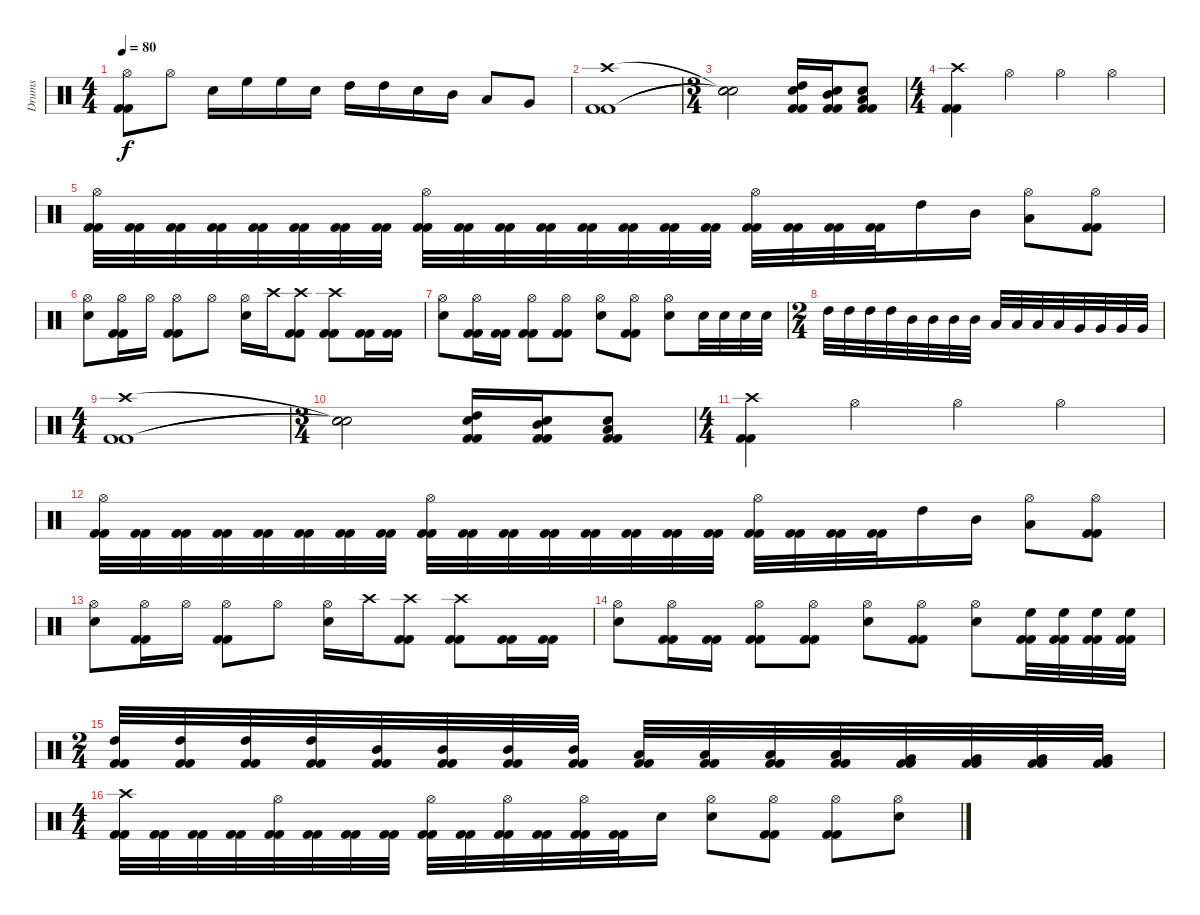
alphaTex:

\track ("Drums" "Drums") {instrument percussion}
\staff {score}
\articulation defaults
\ts (4 4)
\tempo 80
\clef neutral
\ks c
("Kick (hit) 2" "Kick (hit) 2" "Hi-Hat (open)").8{dy f} "Hi-Hat (open)".8 "Snare (hit) 2".16 "High Floor Tom (hit)".16 "High Floor Tom (hit)".16 "Snare (hit) 2".16 "High Tom (hit)".16 "High Tom (hit)".16 "Snare (hit) 2".16 "Mid Tom (hit)".16 "Low Tom (hit)".8 "Very Low Tom (hit)".8 |
("Kick (hit) 2" "Kick (hit) 2" "Crash high (hit)").1 |
\ts (3 4)
("Snare (hit)"{t} "Snare (hit)"{t} "Snare (hit)"{t}).2 ("Kick (hit) 2" "Kick (hit) 2" "Snare (hit) 2" "High Tom (hit)").16 ("Kick (hit) 2" "Kick (hit) 2" "Snare (hit) 2" "Mid Tom (hit)").16 ("Kick (hit) 2" "Kick (hit) 2" "Snare (hit) 2" "Low Tom (hit)").8 |
\ts (4 4)
("Kick (hit) 2" "Kick (hit) 2" "Crash high (hit)").4 "Hi-Hat (open)".4 "Hi-Hat (open)".4 "Hi-Hat (open)".4 |
("Kick (hit) 2" "Kick (hit) 2" "Hi-Hat (open)").32 ("Kick (hit) 2" "Kick (hit) 2").32 ("Kick (hit) 2" "Kick (hit) 2").32 ("Kick (hit) 2" "Kick (hit) 2").32 ("Kick (hit) 2" "Kick (hit) 2").32 ("Kick (hit) 2" "Kick (hit) 2").32 ("Kick (hit) 2" "Kick (hit) 2").32 ("Kick (hit) 2" "Kick (hit) 2").32 ("Kick (hit) 2" "Kick (hit) 2" "Hi-Hat (open)").32 ("Kick (hit) 2" "Kick (hit) 2").32 ("Kick (hit) 2" "Kick (hit) 2").32 ("Kick (hit) 2" "Kick (hit) 2").32 ("Kick (hit) 2" "Kick (hit) 2").32 ("Kick (hit) 2" "Kick (hit) 2").32 ("Kick (hit) 2" "Kick (hit) 2").32 ("Kick (hit) 2" "Kick (hit) 2").32 ("Kick (hit) 2" "Kick (hit) 2" "Hi-Hat (open)").32 ("Kick (hit) 2" "Kick (hit) 2").32 ("Kick (hit) 2" "Kick (hit) 2").32 ("Kick (hit) 2" "Kick (hit) 2").32 "High Tom (hit)".16 "Mid Tom (hit)".16 ("Low Tom (hit)" "Hi-Hat (open)").8 ("Kick (hit) 2" "Kick (hit) 2" "Hi-Hat (open)").8 |
("Snare (hit) 2" "Hi-Hat (open)").8 ("Kick (hit) 2" "Kick (hit) 2" "Hi-Hat (open)").16 "Hi-Hat (open)".16 ("Kick (hit) 2" "Kick (hit) 2" "Hi-Hat (open)").8 "Hi-Hat (open)".8 ("Snare (hit) 2" "Hi-Hat (open)").16 "Crash high (hit)".16 ("Kick (hit) 2" "Kick (hit) 2" "Crash high (hit)").8 ("Kick (hit) 2" "Kick (hit) 2" "Crash high (hit)").8 ("Kick (hit) 2" "Kick (hit) 2").16 ("Kick (hit) 2" "Kick (hit) 2").16 |
("Snare (hit) 2" "Hi-Hat (open)").8 ("Kick (hit) 2" "Kick (hit) 2" "Hi-Hat (open)").16 ("Kick (hit) 2" "Kick (hit) 2").16 ("Kick (hit) 2" "Kick (hit) 2" "Hi-Hat (open)").8 ("Kick (hit) 2" "Kick (hit) 2" "Hi-Hat (open)").8 ("Snare (hit) 2" "Hi-Hat (open)").8 ("Kick (hit) 2" "Kick (hit) 2" "Hi-Hat (open)").8 ("Snare (hit) 2" "Hi-Hat (open)").8 "Snare (hit) 2".32 "Snare (hit) 2".32 "Snare (hit) 2".32 "Snare (hit) 2".32 |
\ts (2 4)
"High Tom (hit)".32 "High Tom (hit)".32 "High Tom (hit)".32 "High Tom (hit)".32 "Mid Tom (hit)".32 "Mid Tom (hit)".32 "Mid Tom (hit)".32 "Mid Tom (hit)".32 "Low Tom (hit)".32 "Low Tom (hit)".32 "Low Tom (hit)".32 "Low Tom (hit)".32 "Very Low Tom (hit)".32 "Very Low Tom (hit)".32 "Very Low Tom (hit)".32 "Very Low Tom (hit)".32 |
\ts (4 4)
("Kick (hit) 2" "Kick (hit) 2" "Crash high (hit)").1 |
\ts (3 4)
("Snare (hit)"{t} "Snare (hit)"{t} "Snare (hit)"{t}).2 ("Kick (hit) 2" "Kick (hit) 2" "Snare (hit) 2" "High Tom (hit)").16 ("Kick (hit) 2" "Kick (hit) 2" "Snare (hit) 2" "Mid Tom (hit)").16 ("Kick (hit) 2" "Kick (hit) 2" "Snare (hit) 2" "Low Tom (hit)").8 |
\ts (4 4)
("Kick (hit) 2" "Kick (hit) 2" "Crash high (hit)").4 "Hi-Hat (open)".4 "Hi-Hat (open)".4 "Hi-Hat (open)".4 |
("Kick (hit) 2" "Kick (hit) 2" "Hi-Hat (open)").32 ("Kick (hit) 2" "Kick (hit) 2").32 ("Kick (hit) 2" "Kick (hit) 2").32 ("Kick (hit) 2" "Kick (hit) 2").32 ("Kick (hit) 2" "Kick (hit) 2").32 ("Kick (hit) 2" "Kick (hit) 2").32 ("Kick (hit) 2" "Kick (hit) 2").32 ("Kick (hit) 2" "Kick (hit) 2").32 ("Kick (hit) 2" "Kick (hit) 2" "Hi-Hat (open)").32 ("Kick (hit) 2" "Kick (hit) 2").32 ("Kick (hit) 2" "Kick (hit) 2").32 ("Kick (hit) 2" "Kick (hit) 2").32 ("Kick (hit) 2" "Kick (hit) 2").32 ("Kick (hit) 2" "Kick (hit) 2").32 ("Kick (hit) 2" "Kick (hit) 2").32 ("Kick (hit) 2" "Kick (hit) 2").32 ("Kick (hit) 2" "Kick (hit) 2" "Hi-Hat (open)").32 ("Kick (hit) 2" "Kick (hit) 2").32 ("Kick (hit) 2" "Kick (hit) 2").32 ("Kick (hit) 2" "Kick (hit) 2").32 "High Tom (hit)".16 "Mid Tom (hit)".16 ("Low Tom (hit)" "Hi-Hat (open)").8 ("Kick (hit) 2" "Kick (hit) 2" "Hi-Hat (open)").8 |
("Snare (hit) 2" "Hi-Hat (open)").8 ("Kick (hit) 2" "Kick (hit) 2" "Hi-Hat (open)").16 "Hi-Hat (open)".16 ("Kick (hit) 2" "Kick (hit) 2" "Hi-Hat (open)").8 "Hi-Hat (open)".8 ("Snare (hit) 2" "Hi-Hat (open)").16 "Crash high (hit)".16 ("Kick (hit) 2" "Kick (hit) 2" "Crash high (hit)").8 ("Kick (hit) 2" "Kick (hit) 2" "Crash high (hit)").8 ("Kick (hit) 2" "Kick (hit) 2").16 ("Kick (hit) 2" "Kick (hit) 2").16 |
("Snare (hit) 2" "Hi-Hat (open)").8 ("Kick (hit) 2" "Kick (hit) 2" "Hi-Hat (open)").16 ("Kick (hit) 2" "Kick (hit) 2").16 ("Kick (hit) 2" "Kick (hit) 2" "Hi-Hat (open)").8 ("Kick (hit) 2" "Kick (hit) 2" "Hi-Hat (open)").8 ("Snare (hit) 2" "Hi-Hat (open)").8 ("Kick (hit) 2" "Kick (hit) 2" "Hi-Hat (open)").8 ("Snare (hit) 2" "Hi-Hat (open)").8 ("Kick (hit) 2" "Kick (hit) 2" "High Floor Tom (hit)").32 ("Kick (hit) 2" "Kick (hit) 2" "High Floor Tom (hit)").32 ("Kick (hit) 2" "Kick (hit) 2" "High Floor Tom (hit)").32 ("Kick (hit) 2" "Kick (hit) 2" "High Floor Tom (hit)").32 |
\ts (2 4)
("Kick (hit) 2" "Kick (hit) 2" "High Tom (hit)").32 ("Kick (hit) 2" "Kick (hit) 2" "High Tom (hit)").32 ("Kick (hit) 2" "Kick (hit) 2" "High Tom (hit)").32 ("Kick (hit) 2" "Kick (hit) 2" "High Tom (hit)").32 ("Kick (hit) 2" "Kick (hit) 2" "Mid Tom (hit)").32 ("Kick (hit) 2" "Kick (hit) 2" "Mid Tom (hit)").32 ("Kick (hit) 2" "Kick (hit) 2" "Mid Tom (hit)").32 ("Kick (hit) 2" "Kick (hit) 2" "Mid Tom (hit)").32 ("Kick (hit) 2" "Kick (hit) 2" "Low Tom (hit)").32 ("Kick (hit) 2" "Kick (hit) 2" "Low Tom (hit)").32 ("Kick (hit) 2" "Kick (hit) 2" "Low Tom (hit)").32 ("Kick (hit) 2" "Kick (hit) 2" "Low Tom (hit)").32 ("Kick (hit) 2" "Kick (hit) 2" "Very Low Tom (hit)").32 ("Kick (hit) 2" "Kick (hit) 2" "Very Low Tom (hit)").32 ("Kick (hit) 2" "Kick (hit) 2" "Very Low Tom (hit)").32 ("Kick (hit) 2" "Kick (hit) 2" "Very Low Tom (hit)").32 |
\ts (4 4)
("Kick (hit) 2" "Kick (hit) 2" "Crash high (hit)").32 ("Kick (hit) 2" "Kick (hit) 2").32 ("Kick (hit) 2" "Kick (hit) 2").32 ("Kick (hit) 2" "Kick (hit) 2").32 ("Kick (hit) 2" "Kick (hit) 2" "Hi-Hat (open)").32 ("Kick (hit) 2" "Kick (hit) 2").32 ("Kick (hit) 2" "Kick (hit) 2").32 ("Kick (hit) 2" "Kick (hit) 2").32 ("Kick (hit) 2" "Kick (hit) 2" "Hi-Hat (open)").32 ("Kick (hit) 2" "Kick (hit) 2").32 ("Kick (hit) 2" "Kick (hit) 2" "Hi-Hat (open)").32 ("Kick (hit) 2" "Kick (hit) 2").32 ("Kick (hit) 2" "Kick (hit) 2" "Hi-Hat (open)").32 ("Kick (hit) 2" "Kick (hit) 2").32 "Snare (hit) 2".16 ("Snare (hit) 2" "Hi-Hat (open)").8 ("Kick (hit) 2" "Kick (hit) 2" "Hi-Hat (open)").8 ("Kick (hit) 2" "Kick (hit) 2" "Hi-Hat (open)").8 ("Snare (hit) 2" "Hi-Hat (open)").8
